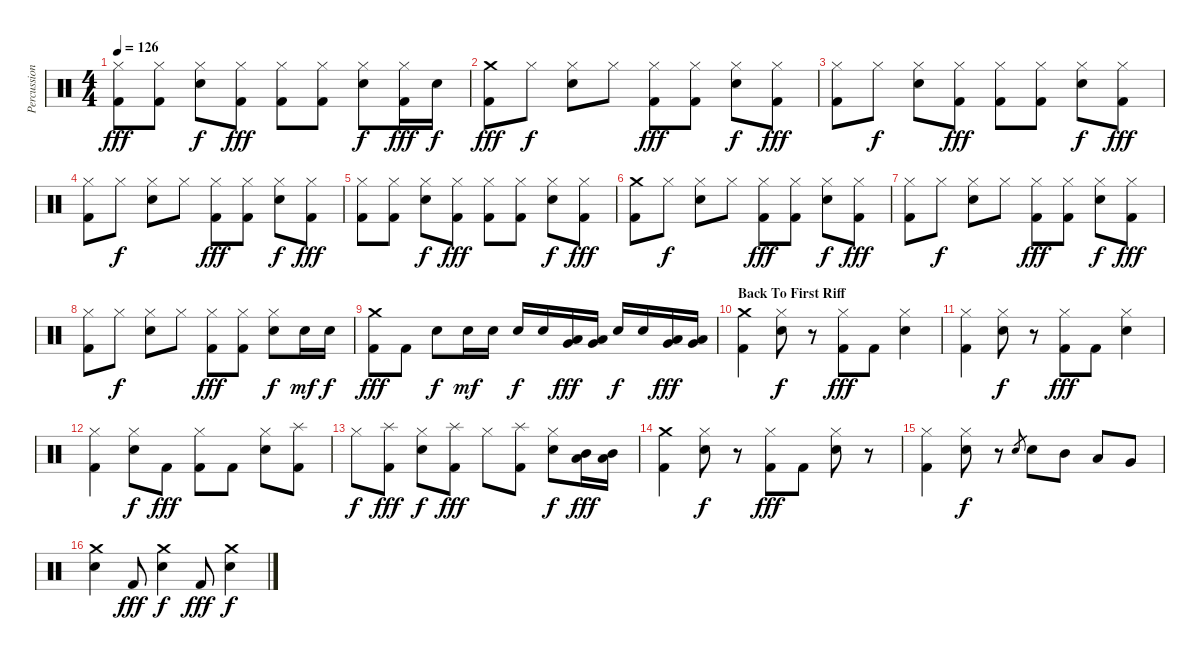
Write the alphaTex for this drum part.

\track ("Percussion" "Percussion") {instrument percussion}
\staff {score}
\articulation defaults
\ts (4 4)
\tempo 126
\clef neutral
\ks c
("Hi-Hat (closed)" "Kick (hit) 2").8{dy fff} ("Hi-Hat (closed)" "Kick (hit) 2").8 ("Hi-Hat (closed)" "Electric Snare (hit)").8{dy f} ("Hi-Hat (closed)" "Kick (hit) 2").8{dy fff} ("Hi-Hat (closed)" "Kick (hit) 2").8 ("Hi-Hat (closed)" "Kick (hit) 2").8 ("Hi-Hat (closed)" "Electric Snare (hit)").8{dy f} ("Hi-Hat (closed)" "Kick (hit) 2").16{dy fff} "Electric Snare (hit)".16{dy f} |
("Crash medium (hit)" "Kick (hit) 2").8{dy fff} "Hi-Hat (closed)".8{dy f} ("Hi-Hat (closed)" "Electric Snare (hit)").8 "Hi-Hat (closed)".8 ("Hi-Hat (closed)" "Kick (hit) 2").8{dy fff} ("Hi-Hat (closed)" "Kick (hit) 2").8 ("Hi-Hat (closed)" "Electric Snare (hit)").8{dy f} ("Hi-Hat (closed)" "Kick (hit) 2").8{dy fff} |
("Hi-Hat (closed)" "Kick (hit) 2").8 "Hi-Hat (closed)".8{dy f} ("Hi-Hat (closed)" "Electric Snare (hit)").8 ("Hi-Hat (closed)" "Kick (hit) 2").8{dy fff} ("Hi-Hat (closed)" "Kick (hit) 2").8 ("Hi-Hat (closed)" "Kick (hit) 2").8 ("Hi-Hat (closed)" "Electric Snare (hit)").8{dy f} ("Hi-Hat (closed)" "Kick (hit) 2").8{dy fff} |
("Hi-Hat (closed)" "Kick (hit) 2").8 "Hi-Hat (closed)".8{dy f} ("Hi-Hat (closed)" "Electric Snare (hit)").8 "Hi-Hat (closed)".8 ("Hi-Hat (closed)" "Kick (hit) 2").8{dy fff} ("Hi-Hat (closed)" "Kick (hit) 2").8 ("Hi-Hat (closed)" "Electric Snare (hit)").8{dy f} ("Hi-Hat (closed)" "Kick (hit) 2").8{dy fff} |
("Hi-Hat (closed)" "Kick (hit) 2").8 ("Hi-Hat (closed)" "Kick (hit) 2").8 ("Hi-Hat (closed)" "Electric Snare (hit)").8{dy f} ("Hi-Hat (closed)" "Kick (hit) 2").8{dy fff} ("Hi-Hat (closed)" "Kick (hit) 2").8 ("Hi-Hat (closed)" "Kick (hit) 2").8 ("Hi-Hat (closed)" "Electric Snare (hit)").8{dy f} ("Hi-Hat (closed)" "Kick (hit) 2").8{dy fff} |
("Crash medium (hit)" "Kick (hit) 2").8 "Hi-Hat (closed)".8{dy f} ("Hi-Hat (closed)" "Electric Snare (hit)").8 "Hi-Hat (closed)".8 ("Hi-Hat (closed)" "Kick (hit) 2").8{dy fff} ("Hi-Hat (closed)" "Kick (hit) 2").8 ("Hi-Hat (closed)" "Electric Snare (hit)").8{dy f} ("Hi-Hat (closed)" "Kick (hit) 2").8{dy fff} |
("Hi-Hat (closed)" "Kick (hit) 2").8 "Hi-Hat (closed)".8{dy f} ("Hi-Hat (closed)" "Electric Snare (hit)").8 "Hi-Hat (closed)".8 ("Hi-Hat (closed)" "Kick (hit) 2").8{dy fff} ("Hi-Hat (closed)" "Kick (hit) 2").8 ("Hi-Hat (closed)" "Electric Snare (hit)").8{dy f} ("Hi-Hat (closed)" "Kick (hit) 2").8{dy fff} |
("Hi-Hat (closed)" "Kick (hit) 2").8 "Hi-Hat (closed)".8{dy f} ("Hi-Hat (closed)" "Electric Snare (hit)").8 "Hi-Hat (closed)".8 ("Hi-Hat (closed)" "Kick (hit) 2").8{dy fff} ("Hi-Hat (closed)" "Kick (hit) 2").8 ("Hi-Hat (closed)" "Electric Snare (hit)").8{dy f} "Electric Snare (hit)".16{dy mf} "Electric Snare (hit)".16{dy f} |
("Crash medium (hit)" "Kick (hit) 2").8{dy fff} "Kick (hit) 2".8 "Electric Snare (hit)".8{dy f} "Electric Snare (hit)".16{dy mf} "Electric Snare (hit)".16 "Electric Snare (hit)".16{dy f} "Electric Snare (hit)".16 ("Low Tom (hit)" "Very Low Tom (hit)").16{dy fff} ("Low Tom (hit)" "Very Low Tom (hit)").16 "Electric Snare (hit)".16{dy f} "Electric Snare (hit)".16 ("Low Tom (hit)" "Very Low Tom (hit)").16{dy fff} ("Low Tom (hit)" "Very Low Tom (hit)").16 |
\section ("" "Back To First Riff")
("Crash medium (hit)" "Kick (hit) 2").4 ("Hi-Hat (closed)" "Electric Snare (hit)").8{dy f} r.8 ("Hi-Hat (closed)" "Kick (hit) 2").8{dy fff} "Kick (hit) 2".8 ("Hi-Hat (closed)" "Electric Snare (hit)").4 |
("Hi-Hat (closed)" "Kick (hit) 2").4 ("Hi-Hat (closed)" "Electric Snare (hit)").8{dy f} r.8 ("Hi-Hat (closed)" "Kick (hit) 2").8{dy fff} "Kick (hit) 2".8 ("Hi-Hat (closed)" "Electric Snare (hit)").4 |
("Hi-Hat (closed)" "Kick (hit) 2").4 ("Hi-Hat (closed)" "Electric Snare (hit)").8{dy f} "Kick (hit) 2".8{dy fff} ("Hi-Hat (closed)" "Kick (hit) 2").8 "Kick (hit) 2".8 ("Hi-Hat (closed)" "Electric Snare (hit)").8 ("Splash (hit)" "Kick (hit) 2").8 |
"Hi-Hat (closed)".8{dy f} ("Splash (hit)" "Kick (hit) 2").8{dy fff} ("Hi-Hat (closed)" "Electric Snare (hit)").8{dy f} ("Splash (hit)" "Kick (hit) 2").8{dy fff} "Hi-Hat (closed)".8 ("Splash (hit)" "Kick (hit) 2").8 ("Hi-Hat (closed)" "Electric Snare (hit)").8{dy f} ("Mid Tom (hit)" "Low Tom (hit)").16{dy fff} ("Mid Tom (hit)" "Low Tom (hit)").16 |
("Crash medium (hit)" "Kick (hit) 2").4 ("Hi-Hat (closed)" "Electric Snare (hit)").8{dy f} r.8 ("Hi-Hat (closed)" "Kick (hit) 2").8{dy fff} "Kick (hit) 2".8 ("Hi-Hat (closed)" "Electric Snare (hit)").8 r.8 |
("Hi-Hat (closed)" "Kick (hit) 2").4 ("Hi-Hat (closed)" "Electric Snare (hit)").8{dy f} r.8 "Electric Snare (hit)".8{gr} "Electric Snare (hit)".8 "Mid Tom (hit)".8 "Low Tom (hit)".8 "Very Low Tom (hit)".8 |
("Crash medium (hit)" "Electric Snare (hit)").4 "Kick (hit) 2".8{dy fff} ("Crash medium (hit)" "Electric Snare (hit)").4{dy f} "Kick (hit) 2".8{dy fff} ("Crash medium (hit)" "Electric Snare (hit)").4{dy f}
